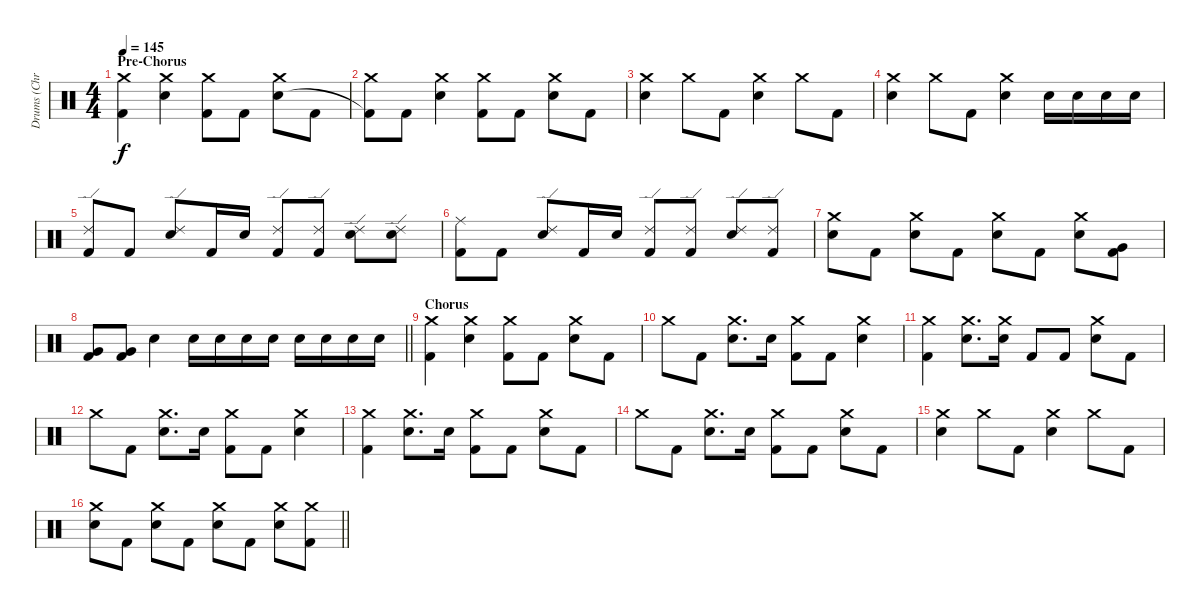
\track ("Drums (Chris)" "Drums (Chr") {instrument percussion}
\staff {score}
\articulation defaults
\ts (4 4)
\section ("" "Pre-Chorus")
\tempo 145
\clef neutral
\ks c
("Crash medium (hit)" "Kick (hit) 2").4{dy f} ("Crash medium (hit)" "Electric Snare (hit)").4 ("Crash medium (hit)" "Kick (hit) 2").8 "Kick (hit) 2".8 ("Crash medium (hit)" "Electric Snare (hit)").8 "Kick (hit) 2".8 |
("Crash medium (hit)" "Kick (hit) 2"{t}).8 "Kick (hit) 2".8 ("Crash medium (hit)" "Electric Snare (hit)").4 ("Crash medium (hit)" "Kick (hit) 2").8 "Kick (hit) 2".8 ("Crash medium (hit)" "Electric Snare (hit)").8 "Kick (hit) 2".8 |
("Crash medium (hit)" "Electric Snare (hit)").4 "Crash medium (hit)".8 "Kick (hit) 2".8 ("Crash medium (hit)" "Electric Snare (hit)").4 "Crash medium (hit)".8 "Kick (hit) 2".8 |
("Crash medium (hit)" "Electric Snare (hit)").4 "Crash medium (hit)".8 "Kick (hit) 2".8 ("Crash medium (hit)" "Electric Snare (hit)").4 "Electric Snare (hit)".16 "Electric Snare (hit)".16 "Electric Snare (hit)".16 "Electric Snare (hit)".16 |
("Ride (edge) 2" "Kick (hit) 2").8 "Kick (hit) 2".8 ("Ride (edge) 2" "Electric Snare (hit)").8 "Kick (hit) 2".16 "Electric Snare (hit)".16 ("Ride (edge) 2" "Kick (hit) 2").8 ("Ride (edge) 2" "Kick (hit) 2").8 ("Ride (edge) 2" "Electric Snare (hit)").8 ("Ride (edge) 2" "Electric Snare (hit)").8 |
("Ride (middle)" "Kick (hit) 2").8 "Kick (hit) 2".8 ("Ride (edge) 2" "Electric Snare (hit)").8 "Kick (hit) 2".16 "Electric Snare (hit)".16 ("Ride (edge) 2" "Kick (hit) 2").8 ("Ride (edge) 2" "Kick (hit) 2").8 ("Ride (edge) 2" "Electric Snare (hit)").8 ("Ride (edge) 2" "Kick (hit) 2").8 |
("Crash medium (hit)" "Electric Snare (hit)").8 "Kick (hit) 2".8 ("Crash medium (hit)" "Electric Snare (hit)").8 "Kick (hit) 2".8 ("Crash medium (hit)" "Electric Snare (hit)").8 "Kick (hit) 2".8 ("Crash medium (hit)" "Electric Snare (hit)").8 ("Very Low Tom (hit)" "Kick (hit) 2").8 |
\barLineRight lightlight
("Very Low Tom (hit)" "Kick (hit) 2").8 ("Very Low Tom (hit)" "Kick (hit) 2").8 "Electric Snare (hit)".4 "Electric Snare (hit)".16 "Electric Snare (hit)".16 "Electric Snare (hit)".16 "Electric Snare (hit)".16 "Electric Snare (hit)".16 "Electric Snare (hit)".16 "Electric Snare (hit)".16 "Electric Snare (hit)".16 |
\section ("" "Chorus")
("Crash medium (hit)" "Kick (hit) 2").4 ("Crash medium (hit)" "Electric Snare (hit)").4 ("Crash medium (hit)" "Kick (hit) 2").8 "Kick (hit) 2".8 ("Crash medium (hit)" "Electric Snare (hit)").8 "Kick (hit) 2".8 |
"Crash medium (hit)".8 "Kick (hit) 2".8 ("Crash medium (hit)" "Electric Snare (hit)").8{d} "Electric Snare (hit)".16 ("Crash medium (hit)" "Kick (hit) 2").8 "Kick (hit) 2".8 ("Crash medium (hit)" "Electric Snare (hit)").4 |
("Crash medium (hit)" "Kick (hit) 2").4 ("Crash medium (hit)" "Electric Snare (hit)").8{d} ("Crash medium (hit)" "Electric Snare (hit)").16 "Kick (hit) 2".8 "Kick (hit) 2".8 ("Crash medium (hit)" "Electric Snare (hit)").8 "Kick (hit) 2".8 |
"Crash medium (hit)".8 "Kick (hit) 2".8 ("Crash medium (hit)" "Electric Snare (hit)").8{d} "Electric Snare (hit)".16 ("Crash medium (hit)" "Kick (hit) 2").8 "Kick (hit) 2".8 ("Crash medium (hit)" "Electric Snare (hit)").4 |
("Crash medium (hit)" "Kick (hit) 2").4 ("Crash medium (hit)" "Electric Snare (hit)").8{d} "Electric Snare (hit)".16 ("Crash medium (hit)" "Kick (hit) 2").8 "Kick (hit) 2".8 ("Crash medium (hit)" "Electric Snare (hit)").8 "Kick (hit) 2".8 |
"Crash medium (hit)".8 "Kick (hit) 2".8 ("Crash medium (hit)" "Electric Snare (hit)").8{d} "Electric Snare (hit)".16 ("Crash medium (hit)" "Kick (hit) 2").8 "Kick (hit) 2".8 ("Crash medium (hit)" "Electric Snare (hit)").8 "Kick (hit) 2".8 |
("Crash medium (hit)" "Electric Snare (hit)").4 "Crash medium (hit)".8 "Kick (hit) 2".8 ("Crash medium (hit)" "Electric Snare (hit)").4 "Crash medium (hit)".8 "Kick (hit) 2".8 |
\barLineRight lightlight
("Crash medium (hit)" "Electric Snare (hit)").8 "Kick (hit) 2".8 ("Crash medium (hit)" "Electric Snare (hit)").8 "Kick (hit) 2".8 ("Crash medium (hit)" "Electric Snare (hit)").8 "Kick (hit) 2".8 ("Crash medium (hit)" "Electric Snare (hit)").8 ("Crash medium (hit)" "Kick (hit) 2").8
